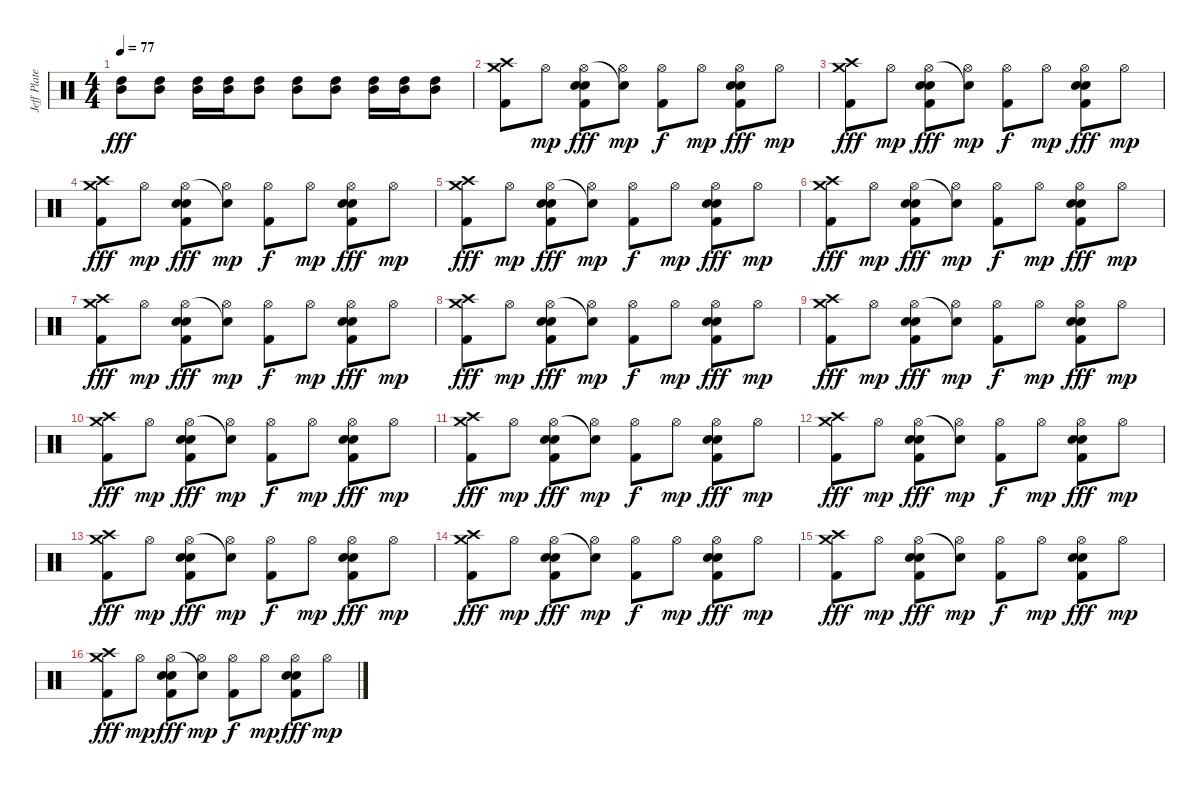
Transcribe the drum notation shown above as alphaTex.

\track ("Jeff Plate" "Jeff Plate") {instrument percussion}
\staff {score}
\articulation defaults
\ts (4 4)
\tempo 77
\clef neutral
\ks c
("High Tom (hit)" "Mid Tom (hit)").8{dy fff} ("High Tom (hit)" "Mid Tom (hit)").8 ("High Tom (hit)" "Mid Tom (hit)").16 ("High Tom (hit)" "Mid Tom (hit)").16 ("High Tom (hit)" "Mid Tom (hit)").8 ("High Tom (hit)" "Mid Tom (hit)").8 ("High Tom (hit)" "Mid Tom (hit)").8 ("High Tom (hit)" "Mid Tom (hit)").16 ("High Tom (hit)" "Mid Tom (hit)").16 ("High Tom (hit)" "Mid Tom (hit)").8 |
("Crash medium (hit)" "Crash high (hit)" "Kick (hit) 2").8 "Hi-Hat (open)".8{dy mp} ("Hi-Hat (open)" "Electric Snare (hit)" "Electric Snare (hit)" "Kick (hit) 2").8{dy fff} ("Snare (hit)"{t} "Hi-Hat (open)").8{dy mp} ("Hi-Hat (open)" "Kick (hit) 2").8{dy f} "Hi-Hat (open)".8{dy mp} ("Hi-Hat (open)" "Electric Snare (hit)" "Electric Snare (hit)" "Kick (hit) 2").8{dy fff} "Hi-Hat (open)".8{dy mp} |
("Crash medium (hit)" "Crash high (hit)" "Kick (hit) 2").8{dy fff} "Hi-Hat (open)".8{dy mp} ("Hi-Hat (open)" "Electric Snare (hit)" "Electric Snare (hit)" "Kick (hit) 2").8{dy fff} ("Snare (hit)"{t} "Hi-Hat (open)").8{dy mp} ("Hi-Hat (open)" "Kick (hit) 2").8{dy f} "Hi-Hat (open)".8{dy mp} ("Hi-Hat (open)" "Electric Snare (hit)" "Electric Snare (hit)" "Kick (hit) 2").8{dy fff} "Hi-Hat (open)".8{dy mp} |
("Crash medium (hit)" "Crash high (hit)" "Kick (hit) 2").8{dy fff} "Hi-Hat (open)".8{dy mp} ("Hi-Hat (open)" "Electric Snare (hit)" "Electric Snare (hit)" "Kick (hit) 2").8{dy fff} ("Snare (hit)"{t} "Hi-Hat (open)").8{dy mp} ("Hi-Hat (open)" "Kick (hit) 2").8{dy f} "Hi-Hat (open)".8{dy mp} ("Hi-Hat (open)" "Electric Snare (hit)" "Electric Snare (hit)" "Kick (hit) 2").8{dy fff} "Hi-Hat (open)".8{dy mp} |
("Crash medium (hit)" "Crash high (hit)" "Kick (hit) 2").8{dy fff} "Hi-Hat (open)".8{dy mp} ("Hi-Hat (open)" "Electric Snare (hit)" "Electric Snare (hit)" "Kick (hit) 2").8{dy fff} ("Snare (hit)"{t} "Hi-Hat (open)").8{dy mp} ("Hi-Hat (open)" "Kick (hit) 2").8{dy f} "Hi-Hat (open)".8{dy mp} ("Hi-Hat (open)" "Electric Snare (hit)" "Electric Snare (hit)" "Kick (hit) 2").8{dy fff} "Hi-Hat (open)".8{dy mp} |
("Crash medium (hit)" "Crash high (hit)" "Kick (hit) 2").8{dy fff} "Hi-Hat (open)".8{dy mp} ("Hi-Hat (open)" "Electric Snare (hit)" "Electric Snare (hit)" "Kick (hit) 2").8{dy fff} ("Snare (hit)"{t} "Hi-Hat (open)").8{dy mp} ("Hi-Hat (open)" "Kick (hit) 2").8{dy f} "Hi-Hat (open)".8{dy mp} ("Hi-Hat (open)" "Electric Snare (hit)" "Electric Snare (hit)" "Kick (hit) 2").8{dy fff} "Hi-Hat (open)".8{dy mp} |
("Crash medium (hit)" "Crash high (hit)" "Kick (hit) 2").8{dy fff} "Hi-Hat (open)".8{dy mp} ("Hi-Hat (open)" "Electric Snare (hit)" "Electric Snare (hit)" "Kick (hit) 2").8{dy fff} ("Snare (hit)"{t} "Hi-Hat (open)").8{dy mp} ("Hi-Hat (open)" "Kick (hit) 2").8{dy f} "Hi-Hat (open)".8{dy mp} ("Hi-Hat (open)" "Electric Snare (hit)" "Electric Snare (hit)" "Kick (hit) 2").8{dy fff} "Hi-Hat (open)".8{dy mp} |
("Crash medium (hit)" "Crash high (hit)" "Kick (hit) 2").8{dy fff} "Hi-Hat (open)".8{dy mp} ("Hi-Hat (open)" "Electric Snare (hit)" "Electric Snare (hit)" "Kick (hit) 2").8{dy fff} ("Snare (hit)"{t} "Hi-Hat (open)").8{dy mp} ("Hi-Hat (open)" "Kick (hit) 2").8{dy f} "Hi-Hat (open)".8{dy mp} ("Hi-Hat (open)" "Electric Snare (hit)" "Electric Snare (hit)" "Kick (hit) 2").8{dy fff} "Hi-Hat (open)".8{dy mp} |
("Crash medium (hit)" "Crash high (hit)" "Kick (hit) 2").8{dy fff} "Hi-Hat (open)".8{dy mp} ("Hi-Hat (open)" "Electric Snare (hit)" "Electric Snare (hit)" "Kick (hit) 2").8{dy fff} ("Snare (hit)"{t} "Hi-Hat (open)").8{dy mp} ("Hi-Hat (open)" "Kick (hit) 2").8{dy f} "Hi-Hat (open)".8{dy mp} ("Hi-Hat (open)" "Electric Snare (hit)" "Electric Snare (hit)" "Kick (hit) 2").8{dy fff} "Hi-Hat (open)".8{dy mp} |
("Crash medium (hit)" "Crash high (hit)" "Kick (hit) 2").8{dy fff} "Hi-Hat (open)".8{dy mp} ("Hi-Hat (open)" "Electric Snare (hit)" "Electric Snare (hit)" "Kick (hit) 2").8{dy fff} ("Snare (hit)"{t} "Hi-Hat (open)").8{dy mp} ("Hi-Hat (open)" "Kick (hit) 2").8{dy f} "Hi-Hat (open)".8{dy mp} ("Hi-Hat (open)" "Electric Snare (hit)" "Electric Snare (hit)" "Kick (hit) 2").8{dy fff} "Hi-Hat (open)".8{dy mp} |
("Crash medium (hit)" "Crash high (hit)" "Kick (hit) 2").8{dy fff} "Hi-Hat (open)".8{dy mp} ("Hi-Hat (open)" "Electric Snare (hit)" "Electric Snare (hit)" "Kick (hit) 2").8{dy fff} ("Snare (hit)"{t} "Hi-Hat (open)").8{dy mp} ("Hi-Hat (open)" "Kick (hit) 2").8{dy f} "Hi-Hat (open)".8{dy mp} ("Hi-Hat (open)" "Electric Snare (hit)" "Electric Snare (hit)" "Kick (hit) 2").8{dy fff} "Hi-Hat (open)".8{dy mp} |
("Crash medium (hit)" "Crash high (hit)" "Kick (hit) 2").8{dy fff} "Hi-Hat (open)".8{dy mp} ("Hi-Hat (open)" "Electric Snare (hit)" "Electric Snare (hit)" "Kick (hit) 2").8{dy fff} ("Snare (hit)"{t} "Hi-Hat (open)").8{dy mp} ("Hi-Hat (open)" "Kick (hit) 2").8{dy f} "Hi-Hat (open)".8{dy mp} ("Hi-Hat (open)" "Electric Snare (hit)" "Electric Snare (hit)" "Kick (hit) 2").8{dy fff} "Hi-Hat (open)".8{dy mp} |
("Crash medium (hit)" "Crash high (hit)" "Kick (hit) 2").8{dy fff} "Hi-Hat (open)".8{dy mp} ("Hi-Hat (open)" "Electric Snare (hit)" "Electric Snare (hit)" "Kick (hit) 2").8{dy fff} ("Snare (hit)"{t} "Hi-Hat (open)").8{dy mp} ("Hi-Hat (open)" "Kick (hit) 2").8{dy f} "Hi-Hat (open)".8{dy mp} ("Hi-Hat (open)" "Electric Snare (hit)" "Electric Snare (hit)" "Kick (hit) 2").8{dy fff} "Hi-Hat (open)".8{dy mp} |
("Crash medium (hit)" "Crash high (hit)" "Kick (hit) 2").8{dy fff} "Hi-Hat (open)".8{dy mp} ("Hi-Hat (open)" "Electric Snare (hit)" "Electric Snare (hit)" "Kick (hit) 2").8{dy fff} ("Snare (hit)"{t} "Hi-Hat (open)").8{dy mp} ("Hi-Hat (open)" "Kick (hit) 2").8{dy f} "Hi-Hat (open)".8{dy mp} ("Hi-Hat (open)" "Electric Snare (hit)" "Electric Snare (hit)" "Kick (hit) 2").8{dy fff} "Hi-Hat (open)".8{dy mp} |
("Crash medium (hit)" "Crash high (hit)" "Kick (hit) 2").8{dy fff} "Hi-Hat (open)".8{dy mp} ("Hi-Hat (open)" "Electric Snare (hit)" "Electric Snare (hit)" "Kick (hit) 2").8{dy fff} ("Snare (hit)"{t} "Hi-Hat (open)").8{dy mp} ("Hi-Hat (open)" "Kick (hit) 2").8{dy f} "Hi-Hat (open)".8{dy mp} ("Hi-Hat (open)" "Electric Snare (hit)" "Electric Snare (hit)" "Kick (hit) 2").8{dy fff} "Hi-Hat (open)".8{dy mp} |
("Crash medium (hit)" "Crash high (hit)" "Kick (hit) 2").8{dy fff} "Hi-Hat (open)".8{dy mp} ("Hi-Hat (open)" "Electric Snare (hit)" "Electric Snare (hit)" "Kick (hit) 2").8{dy fff} ("Snare (hit)"{t} "Hi-Hat (open)").8{dy mp} ("Hi-Hat (open)" "Kick (hit) 2").8{dy f} "Hi-Hat (open)".8{dy mp} ("Hi-Hat (open)" "Electric Snare (hit)" "Electric Snare (hit)" "Kick (hit) 2").8{dy fff} "Hi-Hat (open)".8{dy mp}
